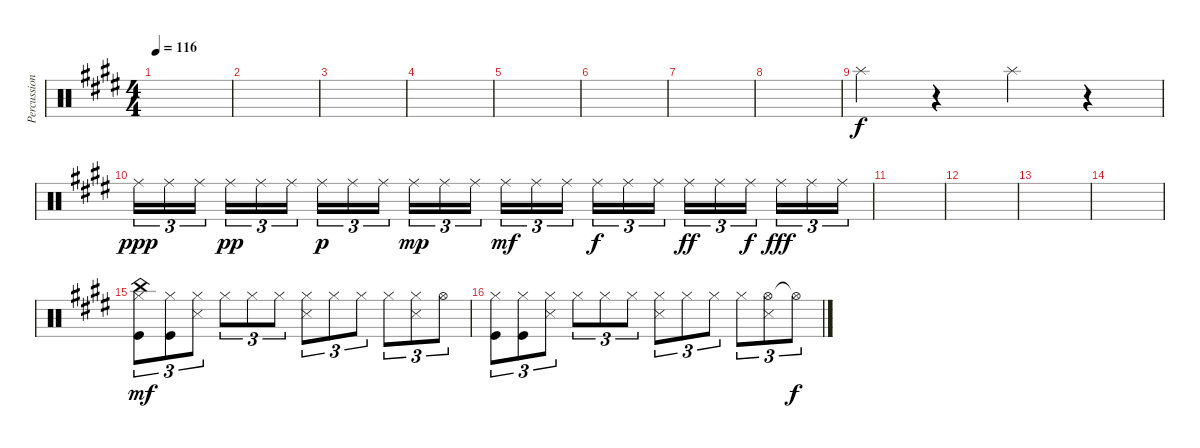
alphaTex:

\track ("Percussion" "Percussion") {instrument percussion}
\staff {score}
\articulation defaults
\ts (4 4)
\tempo 116
\clef neutral
\ks c#minor
|
|
|
|
|
|
|
|
"Splash (hit)".4 r.4 "Splash (hit)".4 r.4 |
"Ride (middle)".16{tu (3 2) dy ppp} "Ride (middle)".16{tu (3 2)} "Ride (middle)".16{tu (3 2) beam splitsecondary} "Ride (middle)".16{tu (3 2) dy pp} "Ride (middle)".16{tu (3 2)} "Ride (middle)".16{tu (3 2)} "Ride (middle)".16{tu (3 2) dy p} "Ride (middle)".16{tu (3 2)} "Ride (middle)".16{tu (3 2) beam splitsecondary} "Ride (middle)".16{tu (3 2) dy mp} "Ride (middle)".16{tu (3 2)} "Ride (middle)".16{tu (3 2)} "Ride (middle)".16{tu (3 2) dy mf} "Ride (middle)".16{tu (3 2)} "Ride (middle)".16{tu (3 2) beam splitsecondary} "Ride (middle)".16{tu (3 2) dy f} "Ride (middle)".16{tu (3 2)} "Ride (middle)".16{tu (3 2)} "Ride (middle)".16{tu (3 2) dy ff} "Ride (middle)".16{tu (3 2)} "Ride (middle)".16{tu (3 2) dy f beam splitsecondary} "Ride (middle)".16{tu (3 2) dy fff} "Ride (middle)".16{tu (3 2)} "Ride (middle)".16{tu (3 2)} |
|
|
|
|
("China (hit)" "Hi-Hat (closed)" "Kick (hit)").8{tu (3 2) dy mf} ("Hi-Hat (closed)" "Kick (hit)").8{tu (3 2)} ("Hi-Hat (closed)" "Snare (side stick) 3").8{tu (3 2)} "Hi-Hat (closed)".8{tu (3 2)} "Hi-Hat (closed)".8{tu (3 2)} "Hi-Hat (closed)".8{tu (3 2)} ("Hi-Hat (closed)" "Snare (side stick) 3").8{tu (3 2)} "Hi-Hat (closed)".8{tu (3 2)} "Hi-Hat (closed)".8{tu (3 2)} "Hi-Hat (closed)".8{tu (3 2)} ("Hi-Hat (closed)" "Snare (side stick) 3").8{tu (3 2)} "Hi-Hat (open)".8{tu (3 2)} |
("Hi-Hat (closed)" "Kick (hit)").8{tu (3 2)} ("Hi-Hat (closed)" "Kick (hit)").8{tu (3 2)} ("Hi-Hat (closed)" "Snare (side stick) 3").8{tu (3 2)} "Hi-Hat (closed)".8{tu (3 2)} "Hi-Hat (closed)".8{tu (3 2)} "Hi-Hat (closed)".8{tu (3 2)} ("Hi-Hat (closed)" "Snare (side stick) 3").8{tu (3 2)} "Hi-Hat (closed)".8{tu (3 2)} "Hi-Hat (closed)".8{tu (3 2)} "Hi-Hat (closed)".8{tu (3 2)} ("Hi-Hat (open)" "Snare (side stick) 3").8{tu (3 2)} "Hi-Hat (open)"{t}.8{tu (3 2) dy f}
